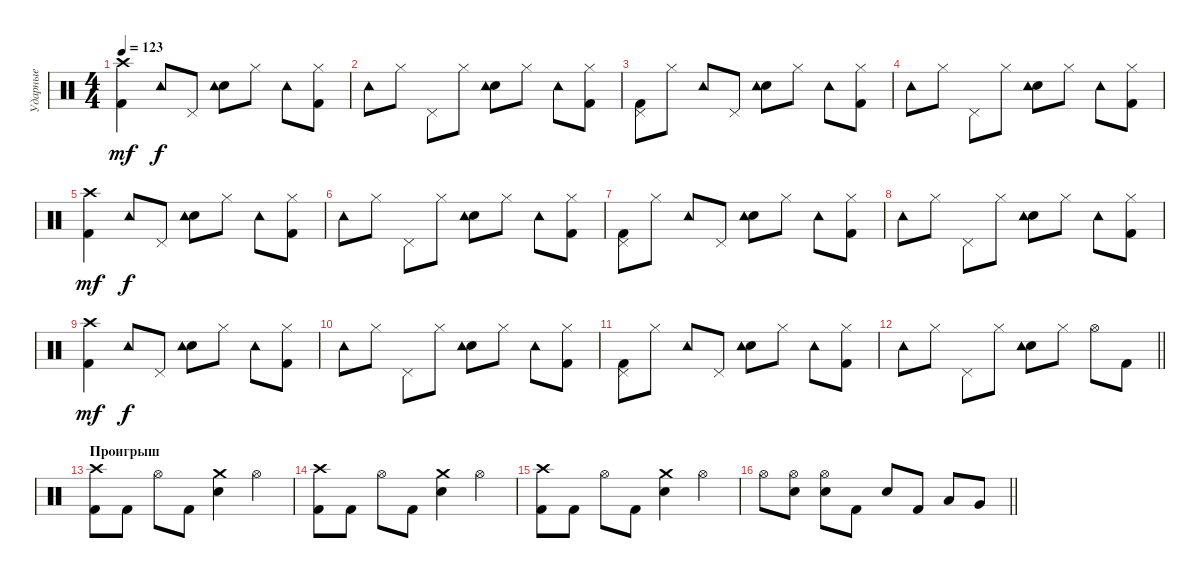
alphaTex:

\track ("Ударные" "Ударные") {instrument percussion}
\staff {score}
\articulation defaults
\ts (4 4)
\tempo 123
\clef neutral
\ks c
("Kick (hit) 2" "Crash high (hit)").4{dy mf} "Tambourine (hit)".8{dy f} "Pedal Hi-Hat (hit)".8 ("Electric Snare (hit)" "Tambourine (hit)").8 "Hi-Hat (closed)".8 "Tambourine (hit)".8 ("Kick (hit) 2" "Hi-Hat (closed)").8 |
"Tambourine (hit)".8 "Hi-Hat (closed)".8 "Pedal Hi-Hat (hit)".8 "Hi-Hat (closed)".8 ("Snare (hit) 2" "Tambourine (hit)").8 "Hi-Hat (closed)".8 "Tambourine (hit)".8 ("Kick (hit) 2" "Hi-Hat (closed)").8 |
("Kick (hit) 2" "Pedal Hi-Hat (hit)").8 "Hi-Hat (closed)".8 "Tambourine (hit)".8 "Pedal Hi-Hat (hit)".8 ("Electric Snare (hit)" "Tambourine (hit)").8 "Hi-Hat (closed)".8 "Tambourine (hit)".8 ("Kick (hit) 2" "Hi-Hat (closed)").8 |
"Tambourine (hit)".8 "Hi-Hat (closed)".8 "Pedal Hi-Hat (hit)".8 "Hi-Hat (closed)".8 ("Snare (hit) 2" "Tambourine (hit)").8 "Hi-Hat (closed)".8 "Tambourine (hit)".8 ("Kick (hit) 2" "Hi-Hat (closed)").8 |
("Kick (hit) 2" "Crash high (hit)").4{dy mf} "Tambourine (hit)".8{dy f} "Pedal Hi-Hat (hit)".8 ("Electric Snare (hit)" "Tambourine (hit)").8 "Hi-Hat (closed)".8 "Tambourine (hit)".8 ("Kick (hit) 2" "Hi-Hat (closed)").8 |
"Tambourine (hit)".8 "Hi-Hat (closed)".8 "Pedal Hi-Hat (hit)".8 "Hi-Hat (closed)".8 ("Snare (hit) 2" "Tambourine (hit)").8 "Hi-Hat (closed)".8 "Tambourine (hit)".8 ("Kick (hit) 2" "Hi-Hat (closed)").8 |
("Kick (hit) 2" "Pedal Hi-Hat (hit)").8 "Hi-Hat (closed)".8 "Tambourine (hit)".8 "Pedal Hi-Hat (hit)".8 ("Electric Snare (hit)" "Tambourine (hit)").8 "Hi-Hat (closed)".8 "Tambourine (hit)".8 ("Kick (hit) 2" "Hi-Hat (closed)").8 |
"Tambourine (hit)".8 "Hi-Hat (closed)".8 "Pedal Hi-Hat (hit)".8 "Hi-Hat (closed)".8 ("Snare (hit) 2" "Tambourine (hit)").8 "Hi-Hat (closed)".8 "Tambourine (hit)".8 ("Kick (hit) 2" "Hi-Hat (closed)").8 |
("Kick (hit) 2" "Crash high (hit)").4{dy mf} "Tambourine (hit)".8{dy f} "Pedal Hi-Hat (hit)".8 ("Electric Snare (hit)" "Tambourine (hit)").8 "Hi-Hat (closed)".8 "Tambourine (hit)".8 ("Kick (hit) 2" "Hi-Hat (closed)").8 |
"Tambourine (hit)".8 "Hi-Hat (closed)".8 "Pedal Hi-Hat (hit)".8 "Hi-Hat (closed)".8 ("Snare (hit) 2" "Tambourine (hit)").8 "Hi-Hat (closed)".8 "Tambourine (hit)".8 ("Kick (hit) 2" "Hi-Hat (closed)").8 |
("Kick (hit) 2" "Pedal Hi-Hat (hit)").8 "Hi-Hat (closed)".8 "Tambourine (hit)".8 "Pedal Hi-Hat (hit)".8 ("Electric Snare (hit)" "Tambourine (hit)").8 "Hi-Hat (closed)".8 "Tambourine (hit)".8 ("Kick (hit) 2" "Hi-Hat (closed)").8 |
\barLineRight lightlight "Tambourine (hit)".8 "Hi-Hat (closed)".8 "Pedal Hi-Hat (hit)".8 "Hi-Hat (closed)".8
("Snare (hit) 2" "Tambourine (hit)").8 "Hi-Hat (closed)".8 "Hi-Hat (open)".8 "Kick (hit) 2".8 |
\section ("" "Проигрыш")
("Kick (hit) 2" "Crash high (hit)").8 "Kick (hit) 2".8 "Hi-Hat (open)".8 "Kick (hit) 2".8 ("Electric Snare (hit)" "Crash medium (hit)").4 "Hi-Hat (open)".4 |
("Kick (hit) 2" "Crash high (hit)").8 "Kick (hit) 2".8 "Hi-Hat (open)".8 "Kick (hit) 2".8 ("Electric Snare (hit)" "Crash medium (hit)").4 "Hi-Hat (open)".4 |
("Kick (hit) 2" "Crash high (hit)").8 "Kick (hit) 2".8 "Hi-Hat (open)".8 "Kick (hit) 2".8 ("Electric Snare (hit)" "Crash medium (hit)").4 "Hi-Hat (open)".4 |
\barLineRight lightlight "Hi-Hat (open)".8
("Electric Snare (hit)" "Hi-Hat (open)").8 ("Electric Snare (hit)" "Hi-Hat (open)").8 "Kick (hit) 2".8 "Electric Snare (hit)".8 "Kick (hit) 2".8 "Low Tom (hit)".8 "Very Low Tom (hit)".8
